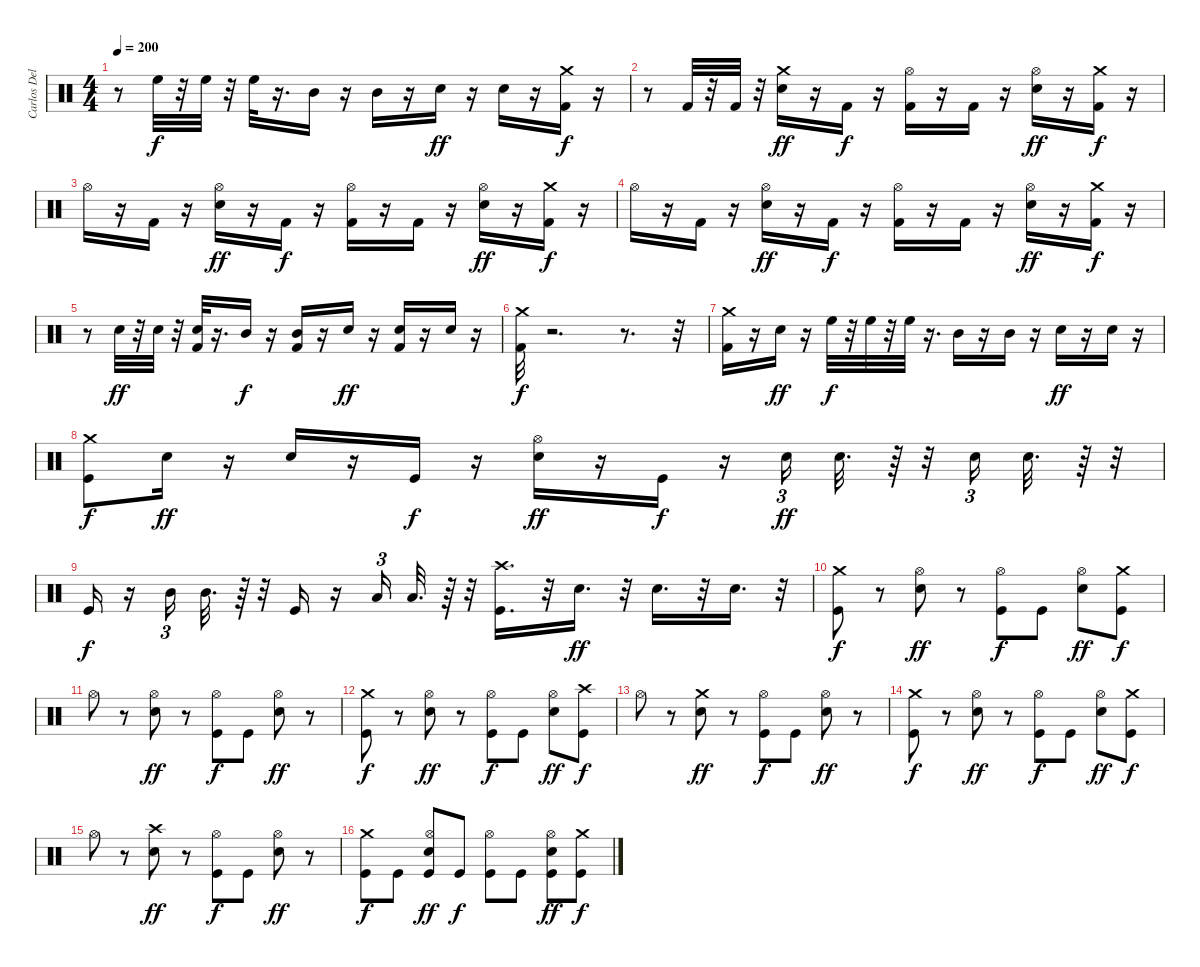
\track ("Carlos Delgado" "Carlos Del") {instrument percussion}
\staff {score}
\articulation defaults
\ts (4 4)
\tempo 200
\clef neutral
\ks c
r.8{dy f} "High Floor Tom (hit)".32 r.32 "High Floor Tom (hit)".32 r.32 "High Floor Tom (hit)".32 r.16{d} "Mid Tom (hit)".16 r.16 "Mid Tom (hit)".16 r.16 "Electric Snare (hit)".16{dy ff} r.16 "Electric Snare (hit)".16 r.16 ("Kick (hit) 2" "Crash medium (hit)").16{dy f} r.16 |
r.8 "Kick (hit) 2".32 r.32 "Kick (hit) 2".32 r.32 ("Electric Snare (hit)" "Crash medium (hit)").16{dy ff} r.16 "Kick (hit) 2".16{dy f} r.16 ("Kick (hit) 2" "Hi-Hat (open)").16 r.16 "Kick (hit) 2".16 r.16 ("Hi-Hat (open)" "Electric Snare (hit)").16{dy ff} r.16 ("Crash medium (hit)" "Kick (hit) 2").16{dy f} r.16 |
"Hi-Hat (open)".16 r.16 "Kick (hit) 2".16 r.16 ("Hi-Hat (open)" "Electric Snare (hit)").16{dy ff} r.16 "Kick (hit) 2".16{dy f} r.16 ("Hi-Hat (open)" "Kick (hit) 2").16 r.16 "Kick (hit) 2".16 r.16 ("Electric Snare (hit)" "Hi-Hat (open)").16{dy ff} r.16 ("Kick (hit) 2" "Crash medium (hit)").16{dy f} r.16 |
"Hi-Hat (open)".16 r.16 "Kick (hit) 2".16 r.16 ("Hi-Hat (open)" "Electric Snare (hit)").16{dy ff} r.16 "Kick (hit) 2".16{dy f} r.16 ("Hi-Hat (open)" "Kick (hit) 2").16 r.16 "Kick (hit) 2".16 r.16 ("Hi-Hat (open)" "Electric Snare (hit)").16{dy ff} r.16 ("Kick (hit) 2" "Crash medium (hit)").16{dy f} r.16 |
r.8 "Electric Snare (hit)".32{dy ff} r.32 "Electric Snare (hit)".32 r.32 ("Kick (hit) 2" "Electric Snare (hit)").32 r.16{d} "Mid Tom (hit)".16{dy f} r.16 ("Mid Tom (hit)" "Kick (hit) 2").16 r.16 "Electric Snare (hit)".16{dy ff} r.16 ("Kick (hit) 2" "Electric Snare (hit)").16 r.16 "Electric Snare (hit)".16 r.16 |
("Crash medium (hit)" "Kick (hit) 2").32{dy f} r.2{d} r.8{d} r.32 |
("Kick (hit) 2" "Crash medium (hit)").16 r.16 "Electric Snare (hit)".16{dy ff} r.16 "High Floor Tom (hit)".32{dy f} r.32 "High Floor Tom (hit)".32 r.32 "High Floor Tom (hit)".32 r.16{d} "Mid Tom (hit)".16 r.16 "Mid Tom (hit)".16 r.16 "Electric Snare (hit)".16{dy ff} r.16 "Electric Snare (hit)".16 r.16 |
("Crash medium (hit)" "Kick (hit)").8{dy f} "Electric Snare (hit)".16{dy ff} r.16 "Electric Snare (hit)".16 r.16 "Kick (hit)".16{dy f} r.16 ("Hi-Hat (open)" "Electric Snare (hit)").16{dy ff} r.16 "Kick (hit)".16{dy f} r.16 "Electric Snare (hit)".16{tu (3 2) dy ff} "Electric Snare (hit)".32{d} r.64 r.32 "Electric Snare (hit)".16{tu (3 2)} "Electric Snare (hit)".32{d} r.64 r.32 |
"Kick (hit)".16{dy f} r.16 "Mid Tom (hit)".16{tu (3 2)} "Mid Tom (hit)".32{d} r.64 r.32 "Kick (hit)".16 r.16 "Low Tom (hit)".16{tu (3 2)} "Low Tom (hit)".32{d} r.64 r.32 ("Kick (hit)" "Crash high (hit)").16{d} r.32 "Electric Snare (hit)".16{d dy ff} r.32 "Electric Snare (hit)".16{d} r.32 "Electric Snare (hit)".16{d} r.32 |
("Kick (hit)" "Crash medium (hit)").8{dy f} r.8 ("Electric Snare (hit)" "Hi-Hat (open)").8{dy ff} r.8 ("Kick (hit)" "Hi-Hat (open)").8{dy f} "Kick (hit)".8 ("Hi-Hat (open)" "Electric Snare (hit)").8{dy ff} ("Crash medium (hit)" "Kick (hit)").8{dy f} |
"Hi-Hat (open)".8 r.8 ("Electric Snare (hit)" "Hi-Hat (open)").8{dy ff} r.8 ("Hi-Hat (open)" "Kick (hit)").8{dy f} "Kick (hit)".8 ("Hi-Hat (open)" "Electric Snare (hit)").8{dy ff} r.8 |
("Crash medium (hit)" "Kick (hit)").8{dy f} r.8 ("Electric Snare (hit)" "Hi-Hat (open)").8{dy ff} r.8 ("Hi-Hat (open)" "Kick (hit)").8{dy f} "Kick (hit)".8 ("Hi-Hat (open)" "Electric Snare (hit)").8{dy ff} ("Crash high (hit)" "Kick (hit)").8{dy f} |
"Hi-Hat (open)".8 r.8 ("Crash medium (hit)" "Electric Snare (hit)").8{dy ff} r.8 ("Kick (hit)" "Hi-Hat (open)").8{dy f} "Kick (hit)".8 ("Hi-Hat (open)" "Electric Snare (hit)").8{dy ff} r.8 |
("Crash medium (hit)" "Kick (hit)").8{dy f} r.8 ("Electric Snare (hit)" "Hi-Hat (open)").8{dy ff} r.8 ("Kick (hit)" "Hi-Hat (open)").8{dy f} "Kick (hit)".8 ("Electric Snare (hit)" "Hi-Hat (open)").8{dy ff} ("Kick (hit)" "Crash medium (hit)").8{dy f} |
"Hi-Hat (open)".8 r.8 ("Electric Snare (hit)" "Crash high (hit)").8{dy ff} r.8 ("Kick (hit)" "Hi-Hat (open)").8{dy f} "Kick (hit)".8 ("Electric Snare (hit)" "Hi-Hat (open)").8{dy ff} r.8 |
("Crash medium (hit)" "Kick (hit)").8{dy f} "Kick (hit)".8 ("Kick (hit)" "Hi-Hat (open)" "Electric Snare (hit)").8{dy ff} "Kick (hit)".8{dy f} ("Hi-Hat (open)" "Kick (hit)").8 "Kick (hit)".8 ("Kick (hit)" "Electric Snare (hit)" "Hi-Hat (open)").8{dy ff} ("Kick (hit)" "Crash medium (hit)").8{dy f}
